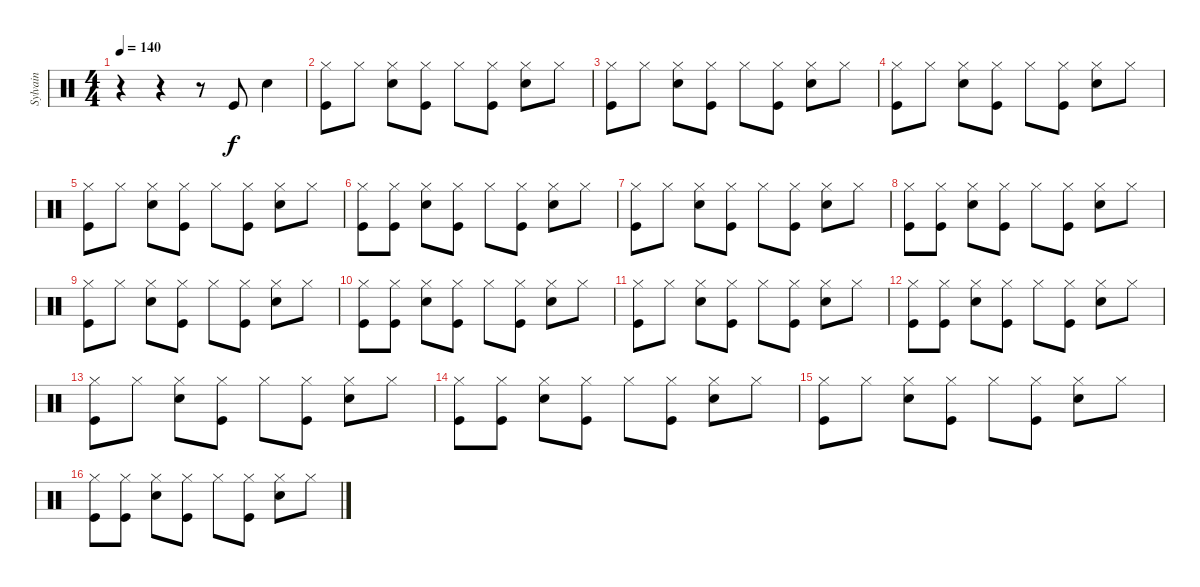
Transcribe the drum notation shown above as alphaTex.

\track ("Sylvain" "Sylvain") {instrument percussion}
\staff {score}
\articulation defaults
\ts (4 4)
\tempo 140
\clef neutral
\ks c
r.4{dy f} r.4 r.8 "Kick (hit)".8 "Electric Snare (hit)".4 |
("Hi-Hat (closed)" "Kick (hit)").8 "Hi-Hat (closed)".8 ("Hi-Hat (closed)" "Electric Snare (hit)").8 ("Hi-Hat (closed)" "Kick (hit)").8 "Hi-Hat (closed)".8 ("Hi-Hat (closed)" "Kick (hit)").8 ("Hi-Hat (closed)" "Electric Snare (hit)").8 "Hi-Hat (closed)".8 |
("Hi-Hat (closed)" "Kick (hit)").8 "Hi-Hat (closed)".8 ("Hi-Hat (closed)" "Electric Snare (hit)").8 ("Hi-Hat (closed)" "Kick (hit)").8 "Hi-Hat (closed)".8 ("Hi-Hat (closed)" "Kick (hit)").8 ("Hi-Hat (closed)" "Electric Snare (hit)").8 "Hi-Hat (closed)".8 |
("Hi-Hat (closed)" "Kick (hit)").8 "Hi-Hat (closed)".8 ("Hi-Hat (closed)" "Electric Snare (hit)").8 ("Hi-Hat (closed)" "Kick (hit)").8 "Hi-Hat (closed)".8 ("Hi-Hat (closed)" "Kick (hit)").8 ("Hi-Hat (closed)" "Electric Snare (hit)").8 "Hi-Hat (closed)".8 |
("Hi-Hat (closed)" "Kick (hit)").8 "Hi-Hat (closed)".8 ("Hi-Hat (closed)" "Electric Snare (hit)").8 ("Hi-Hat (closed)" "Kick (hit)").8 "Hi-Hat (closed)".8 ("Hi-Hat (closed)" "Kick (hit)").8 ("Hi-Hat (closed)" "Electric Snare (hit)").8 "Hi-Hat (closed)".8 |
("Hi-Hat (closed)" "Kick (hit)").8 ("Hi-Hat (closed)" "Kick (hit)").8 ("Hi-Hat (closed)" "Electric Snare (hit)").8 ("Hi-Hat (closed)" "Kick (hit)").8 "Hi-Hat (closed)".8 ("Hi-Hat (closed)" "Kick (hit)").8 ("Hi-Hat (closed)" "Electric Snare (hit)").8 "Hi-Hat (closed)".8 |
("Hi-Hat (closed)" "Kick (hit)").8 "Hi-Hat (closed)".8 ("Hi-Hat (closed)" "Electric Snare (hit)").8 ("Hi-Hat (closed)" "Kick (hit)").8 "Hi-Hat (closed)".8 ("Hi-Hat (closed)" "Kick (hit)").8 ("Hi-Hat (closed)" "Electric Snare (hit)").8 "Hi-Hat (closed)".8 |
("Hi-Hat (closed)" "Kick (hit)").8 ("Hi-Hat (closed)" "Kick (hit)").8 ("Hi-Hat (closed)" "Electric Snare (hit)").8 ("Hi-Hat (closed)" "Kick (hit)").8 "Hi-Hat (closed)".8 ("Hi-Hat (closed)" "Kick (hit)").8 ("Hi-Hat (closed)" "Electric Snare (hit)").8 "Hi-Hat (closed)".8 |
("Hi-Hat (closed)" "Kick (hit)").8 "Hi-Hat (closed)".8 ("Hi-Hat (closed)" "Electric Snare (hit)").8 ("Hi-Hat (closed)" "Kick (hit)").8 "Hi-Hat (closed)".8 ("Hi-Hat (closed)" "Kick (hit)").8 ("Hi-Hat (closed)" "Electric Snare (hit)").8 "Hi-Hat (closed)".8 |
("Hi-Hat (closed)" "Kick (hit)").8 ("Hi-Hat (closed)" "Kick (hit)").8 ("Hi-Hat (closed)" "Electric Snare (hit)").8 ("Hi-Hat (closed)" "Kick (hit)").8 "Hi-Hat (closed)".8 ("Hi-Hat (closed)" "Kick (hit)").8 ("Hi-Hat (closed)" "Electric Snare (hit)").8 "Hi-Hat (closed)".8 |
("Hi-Hat (closed)" "Kick (hit)").8 "Hi-Hat (closed)".8 ("Hi-Hat (closed)" "Electric Snare (hit)").8 ("Hi-Hat (closed)" "Kick (hit)").8 "Hi-Hat (closed)".8 ("Hi-Hat (closed)" "Kick (hit)").8 ("Hi-Hat (closed)" "Electric Snare (hit)").8 "Hi-Hat (closed)".8 |
("Hi-Hat (closed)" "Kick (hit)").8 ("Hi-Hat (closed)" "Kick (hit)").8 ("Hi-Hat (closed)" "Electric Snare (hit)").8 ("Hi-Hat (closed)" "Kick (hit)").8 "Hi-Hat (closed)".8 ("Hi-Hat (closed)" "Kick (hit)").8 ("Hi-Hat (closed)" "Electric Snare (hit)").8 "Hi-Hat (closed)".8 |
("Hi-Hat (closed)" "Kick (hit)").8 "Hi-Hat (closed)".8 ("Hi-Hat (closed)" "Electric Snare (hit)").8 ("Hi-Hat (closed)" "Kick (hit)").8 "Hi-Hat (closed)".8 ("Hi-Hat (closed)" "Kick (hit)").8 ("Hi-Hat (closed)" "Electric Snare (hit)").8 "Hi-Hat (closed)".8 |
("Hi-Hat (closed)" "Kick (hit)").8 ("Hi-Hat (closed)" "Kick (hit)").8 ("Hi-Hat (closed)" "Electric Snare (hit)").8 ("Hi-Hat (closed)" "Kick (hit)").8 "Hi-Hat (closed)".8 ("Hi-Hat (closed)" "Kick (hit)").8 ("Hi-Hat (closed)" "Electric Snare (hit)").8 "Hi-Hat (closed)".8 |
("Hi-Hat (closed)" "Kick (hit)").8 "Hi-Hat (closed)".8 ("Hi-Hat (closed)" "Electric Snare (hit)").8 ("Hi-Hat (closed)" "Kick (hit)").8 "Hi-Hat (closed)".8 ("Hi-Hat (closed)" "Kick (hit)").8 ("Hi-Hat (closed)" "Electric Snare (hit)").8 "Hi-Hat (closed)".8 |
("Hi-Hat (closed)" "Kick (hit)").8 ("Hi-Hat (closed)" "Kick (hit)").8 ("Hi-Hat (closed)" "Electric Snare (hit)").8 ("Hi-Hat (closed)" "Kick (hit)").8 "Hi-Hat (closed)".8 ("Hi-Hat (closed)" "Kick (hit)").8 ("Hi-Hat (closed)" "Electric Snare (hit)").8 "Hi-Hat (closed)".8
